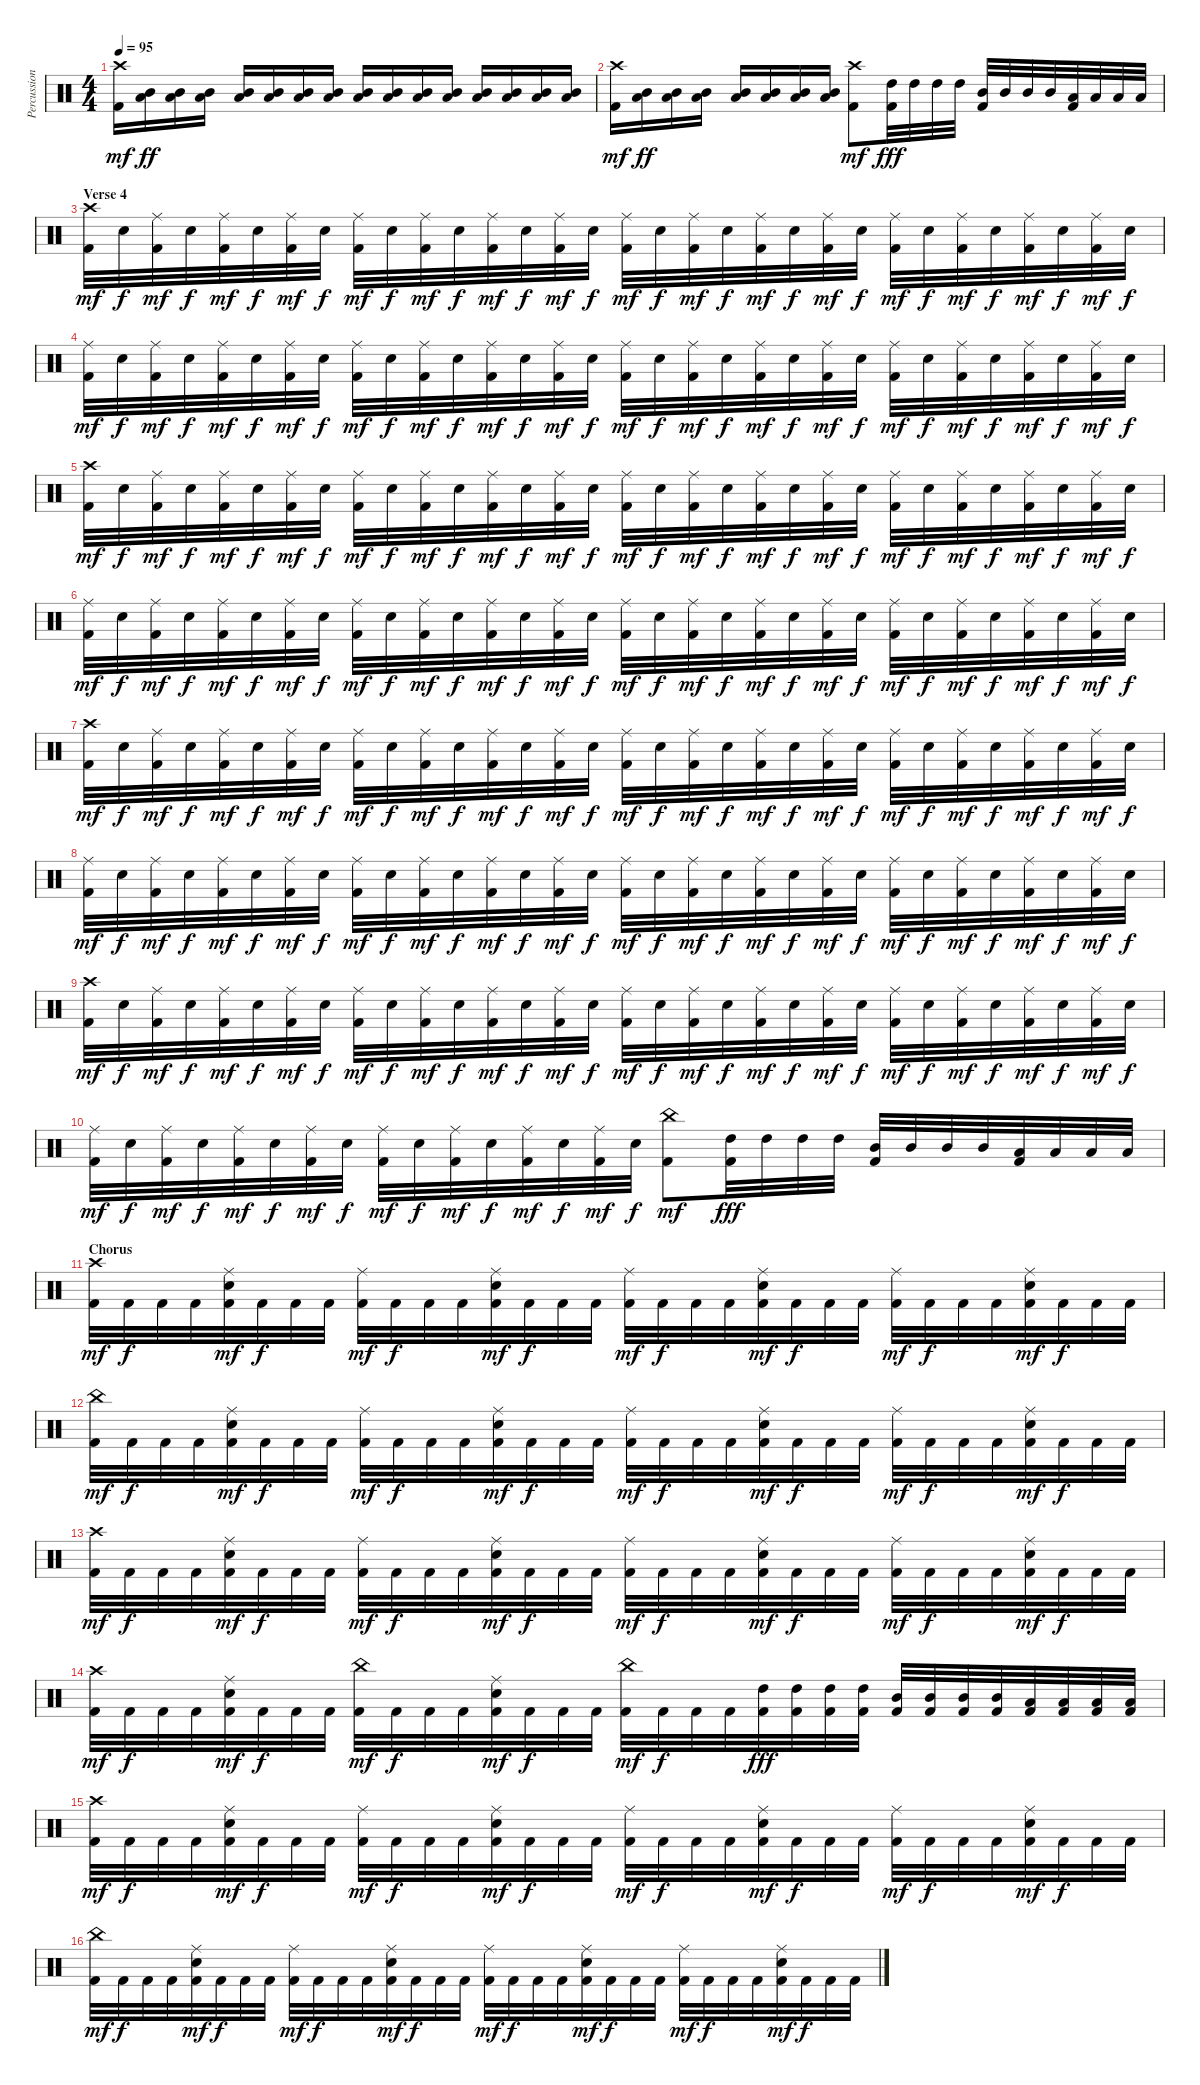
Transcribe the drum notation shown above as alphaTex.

\track ("Percussion" "Percussion") {instrument percussion}
\staff {score}
\articulation defaults
\ts (4 4)
\tempo 95
\clef neutral
\ks c
("Crash high (hit)" "Kick (hit) 2").16{dy mf} ("Mid Tom (hit)" "Low Tom (hit)").16{dy ff} ("Mid Tom (hit)" "Low Tom (hit)").16 ("Mid Tom (hit)" "Low Tom (hit)").16 ("Mid Tom (hit)" "Low Tom (hit)").16 ("Mid Tom (hit)" "Low Tom (hit)").16 ("Mid Tom (hit)" "Low Tom (hit)").16 ("Mid Tom (hit)" "Low Tom (hit)").16 ("Mid Tom (hit)" "Low Tom (hit)").16 ("Mid Tom (hit)" "Low Tom (hit)").16 ("Mid Tom (hit)" "Low Tom (hit)").16 ("Mid Tom (hit)" "Low Tom (hit)").16 ("Mid Tom (hit)" "Low Tom (hit)").16 ("Mid Tom (hit)" "Low Tom (hit)").16 ("Mid Tom (hit)" "Low Tom (hit)").16 ("Mid Tom (hit)" "Low Tom (hit)").16 |
("Crash high (hit)" "Kick (hit) 2").16{dy mf} ("Mid Tom (hit)" "Low Tom (hit)").16{dy ff} ("Mid Tom (hit)" "Low Tom (hit)").16 ("Mid Tom (hit)" "Low Tom (hit)").16 ("Mid Tom (hit)" "Low Tom (hit)").16 ("Mid Tom (hit)" "Low Tom (hit)").16 ("Mid Tom (hit)" "Low Tom (hit)").16 ("Mid Tom (hit)" "Low Tom (hit)").16 ("Crash high (hit)" "Kick (hit) 2").8{dy mf} ("High Tom (hit)" "Kick (hit) 2").32{dy fff} "High Tom (hit)".32 "High Tom (hit)".32 "High Tom (hit)".32 ("Mid Tom (hit)" "Kick (hit) 2").32 "Mid Tom (hit)".32 "Mid Tom (hit)".32 "Mid Tom (hit)".32 ("Low Tom (hit)" "Kick (hit) 2").32 "Low Tom (hit)".32 "Low Tom (hit)".32 "Low Tom (hit)".32 |
\section ("" "Verse 4")
("Crash high (hit)" "Kick (hit) 2").32{dy mf} "Electric Snare (hit)".32{dy f} ("Ride (middle)" "Kick (hit) 2").32{dy mf} "Electric Snare (hit)".32{dy f} ("Ride (middle)" "Kick (hit) 2").32{dy mf} "Electric Snare (hit)".32{dy f} ("Ride (middle)" "Kick (hit) 2").32{dy mf} "Electric Snare (hit)".32{dy f} ("Ride (middle)" "Kick (hit) 2").32{dy mf} "Electric Snare (hit)".32{dy f} ("Ride (middle)" "Kick (hit) 2").32{dy mf} "Electric Snare (hit)".32{dy f} ("Ride (middle)" "Kick (hit) 2").32{dy mf} "Electric Snare (hit)".32{dy f} ("Ride (middle)" "Kick (hit) 2").32{dy mf} "Electric Snare (hit)".32{dy f} ("Ride (middle)" "Kick (hit) 2").32{dy mf} "Electric Snare (hit)".32{dy f} ("Ride (middle)" "Kick (hit) 2").32{dy mf} "Electric Snare (hit)".32{dy f} ("Ride (middle)" "Kick (hit) 2").32{dy mf} "Electric Snare (hit)".32{dy f} ("Ride (middle)" "Kick (hit) 2").32{dy mf} "Electric Snare (hit)".32{dy f} ("Ride (middle)" "Kick (hit) 2").32{dy mf} "Electric Snare (hit)".32{dy f} ("Ride (middle)" "Kick (hit) 2").32{dy mf} "Electric Snare (hit)".32{dy f} ("Ride (middle)" "Kick (hit) 2").32{dy mf} "Electric Snare (hit)".32{dy f} ("Ride (middle)" "Kick (hit) 2").32{dy mf} "Electric Snare (hit)".32{dy f} |
("Ride (middle)" "Kick (hit) 2").32{dy mf} "Electric Snare (hit)".32{dy f} ("Ride (middle)" "Kick (hit) 2").32{dy mf} "Electric Snare (hit)".32{dy f} ("Ride (middle)" "Kick (hit) 2").32{dy mf} "Electric Snare (hit)".32{dy f} ("Ride (middle)" "Kick (hit) 2").32{dy mf} "Electric Snare (hit)".32{dy f} ("Ride (middle)" "Kick (hit) 2").32{dy mf} "Electric Snare (hit)".32{dy f} ("Ride (middle)" "Kick (hit) 2").32{dy mf} "Electric Snare (hit)".32{dy f} ("Ride (middle)" "Kick (hit) 2").32{dy mf} "Electric Snare (hit)".32{dy f} ("Ride (middle)" "Kick (hit) 2").32{dy mf} "Electric Snare (hit)".32{dy f} ("Ride (middle)" "Kick (hit) 2").32{dy mf} "Electric Snare (hit)".32{dy f} ("Ride (middle)" "Kick (hit) 2").32{dy mf} "Electric Snare (hit)".32{dy f} ("Ride (middle)" "Kick (hit) 2").32{dy mf} "Electric Snare (hit)".32{dy f} ("Ride (middle)" "Kick (hit) 2").32{dy mf} "Electric Snare (hit)".32{dy f} ("Ride (middle)" "Kick (hit) 2").32{dy mf} "Electric Snare (hit)".32{dy f} ("Ride (middle)" "Kick (hit) 2").32{dy mf} "Electric Snare (hit)".32{dy f} ("Ride (middle)" "Kick (hit) 2").32{dy mf} "Electric Snare (hit)".32{dy f} ("Ride (middle)" "Kick (hit) 2").32{dy mf} "Electric Snare (hit)".32{dy f} |
("Crash high (hit)" "Kick (hit) 2").32{dy mf} "Electric Snare (hit)".32{dy f} ("Ride (middle)" "Kick (hit) 2").32{dy mf} "Electric Snare (hit)".32{dy f} ("Ride (middle)" "Kick (hit) 2").32{dy mf} "Electric Snare (hit)".32{dy f} ("Ride (middle)" "Kick (hit) 2").32{dy mf} "Electric Snare (hit)".32{dy f} ("Ride (middle)" "Kick (hit) 2").32{dy mf} "Electric Snare (hit)".32{dy f} ("Ride (middle)" "Kick (hit) 2").32{dy mf} "Electric Snare (hit)".32{dy f} ("Ride (middle)" "Kick (hit) 2").32{dy mf} "Electric Snare (hit)".32{dy f} ("Ride (middle)" "Kick (hit) 2").32{dy mf} "Electric Snare (hit)".32{dy f} ("Ride (middle)" "Kick (hit) 2").32{dy mf} "Electric Snare (hit)".32{dy f} ("Ride (middle)" "Kick (hit) 2").32{dy mf} "Electric Snare (hit)".32{dy f} ("Ride (middle)" "Kick (hit) 2").32{dy mf} "Electric Snare (hit)".32{dy f} ("Ride (middle)" "Kick (hit) 2").32{dy mf} "Electric Snare (hit)".32{dy f} ("Ride (middle)" "Kick (hit) 2").32{dy mf} "Electric Snare (hit)".32{dy f} ("Ride (middle)" "Kick (hit) 2").32{dy mf} "Electric Snare (hit)".32{dy f} ("Ride (middle)" "Kick (hit) 2").32{dy mf} "Electric Snare (hit)".32{dy f} ("Ride (middle)" "Kick (hit) 2").32{dy mf} "Electric Snare (hit)".32{dy f} |
("Ride (middle)" "Kick (hit) 2").32{dy mf} "Electric Snare (hit)".32{dy f} ("Ride (middle)" "Kick (hit) 2").32{dy mf} "Electric Snare (hit)".32{dy f} ("Ride (middle)" "Kick (hit) 2").32{dy mf} "Electric Snare (hit)".32{dy f} ("Ride (middle)" "Kick (hit) 2").32{dy mf} "Electric Snare (hit)".32{dy f} ("Ride (middle)" "Kick (hit) 2").32{dy mf} "Electric Snare (hit)".32{dy f} ("Ride (middle)" "Kick (hit) 2").32{dy mf} "Electric Snare (hit)".32{dy f} ("Ride (middle)" "Kick (hit) 2").32{dy mf} "Electric Snare (hit)".32{dy f} ("Ride (middle)" "Kick (hit) 2").32{dy mf} "Electric Snare (hit)".32{dy f} ("Ride (middle)" "Kick (hit) 2").32{dy mf} "Electric Snare (hit)".32{dy f} ("Ride (middle)" "Kick (hit) 2").32{dy mf} "Electric Snare (hit)".32{dy f} ("Ride (middle)" "Kick (hit) 2").32{dy mf} "Electric Snare (hit)".32{dy f} ("Ride (middle)" "Kick (hit) 2").32{dy mf} "Electric Snare (hit)".32{dy f} ("Ride (middle)" "Kick (hit) 2").32{dy mf} "Electric Snare (hit)".32{dy f} ("Ride (middle)" "Kick (hit) 2").32{dy mf} "Electric Snare (hit)".32{dy f} ("Ride (middle)" "Kick (hit) 2").32{dy mf} "Electric Snare (hit)".32{dy f} ("Ride (middle)" "Kick (hit) 2").32{dy mf} "Electric Snare (hit)".32{dy f} |
("Crash high (hit)" "Kick (hit) 2").32{dy mf} "Electric Snare (hit)".32{dy f} ("Ride (middle)" "Kick (hit) 2").32{dy mf} "Electric Snare (hit)".32{dy f} ("Ride (middle)" "Kick (hit) 2").32{dy mf} "Electric Snare (hit)".32{dy f} ("Ride (middle)" "Kick (hit) 2").32{dy mf} "Electric Snare (hit)".32{dy f} ("Ride (middle)" "Kick (hit) 2").32{dy mf} "Electric Snare (hit)".32{dy f} ("Ride (middle)" "Kick (hit) 2").32{dy mf} "Electric Snare (hit)".32{dy f} ("Ride (middle)" "Kick (hit) 2").32{dy mf} "Electric Snare (hit)".32{dy f} ("Ride (middle)" "Kick (hit) 2").32{dy mf} "Electric Snare (hit)".32{dy f} ("Ride (middle)" "Kick (hit) 2").32{dy mf} "Electric Snare (hit)".32{dy f} ("Ride (middle)" "Kick (hit) 2").32{dy mf} "Electric Snare (hit)".32{dy f} ("Ride (middle)" "Kick (hit) 2").32{dy mf} "Electric Snare (hit)".32{dy f} ("Ride (middle)" "Kick (hit) 2").32{dy mf} "Electric Snare (hit)".32{dy f} ("Ride (middle)" "Kick (hit) 2").32{dy mf} "Electric Snare (hit)".32{dy f} ("Ride (middle)" "Kick (hit) 2").32{dy mf} "Electric Snare (hit)".32{dy f} ("Ride (middle)" "Kick (hit) 2").32{dy mf} "Electric Snare (hit)".32{dy f} ("Ride (middle)" "Kick (hit) 2").32{dy mf} "Electric Snare (hit)".32{dy f} |
("Ride (middle)" "Kick (hit) 2").32{dy mf} "Electric Snare (hit)".32{dy f} ("Ride (middle)" "Kick (hit) 2").32{dy mf} "Electric Snare (hit)".32{dy f} ("Ride (middle)" "Kick (hit) 2").32{dy mf} "Electric Snare (hit)".32{dy f} ("Ride (middle)" "Kick (hit) 2").32{dy mf} "Electric Snare (hit)".32{dy f} ("Ride (middle)" "Kick (hit) 2").32{dy mf} "Electric Snare (hit)".32{dy f} ("Ride (middle)" "Kick (hit) 2").32{dy mf} "Electric Snare (hit)".32{dy f} ("Ride (middle)" "Kick (hit) 2").32{dy mf} "Electric Snare (hit)".32{dy f} ("Ride (middle)" "Kick (hit) 2").32{dy mf} "Electric Snare (hit)".32{dy f} ("Ride (middle)" "Kick (hit) 2").32{dy mf} "Electric Snare (hit)".32{dy f} ("Ride (middle)" "Kick (hit) 2").32{dy mf} "Electric Snare (hit)".32{dy f} ("Ride (middle)" "Kick (hit) 2").32{dy mf} "Electric Snare (hit)".32{dy f} ("Ride (middle)" "Kick (hit) 2").32{dy mf} "Electric Snare (hit)".32{dy f} ("Ride (middle)" "Kick (hit) 2").32{dy mf} "Electric Snare (hit)".32{dy f} ("Ride (middle)" "Kick (hit) 2").32{dy mf} "Electric Snare (hit)".32{dy f} ("Ride (middle)" "Kick (hit) 2").32{dy mf} "Electric Snare (hit)".32{dy f} ("Ride (middle)" "Kick (hit) 2").32{dy mf} "Electric Snare (hit)".32{dy f} |
("Crash high (hit)" "Kick (hit) 2").32{dy mf} "Electric Snare (hit)".32{dy f} ("Ride (middle)" "Kick (hit) 2").32{dy mf} "Electric Snare (hit)".32{dy f} ("Ride (middle)" "Kick (hit) 2").32{dy mf} "Electric Snare (hit)".32{dy f} ("Ride (middle)" "Kick (hit) 2").32{dy mf} "Electric Snare (hit)".32{dy f} ("Ride (middle)" "Kick (hit) 2").32{dy mf} "Electric Snare (hit)".32{dy f} ("Ride (middle)" "Kick (hit) 2").32{dy mf} "Electric Snare (hit)".32{dy f} ("Ride (middle)" "Kick (hit) 2").32{dy mf} "Electric Snare (hit)".32{dy f} ("Ride (middle)" "Kick (hit) 2").32{dy mf} "Electric Snare (hit)".32{dy f} ("Ride (middle)" "Kick (hit) 2").32{dy mf} "Electric Snare (hit)".32{dy f} ("Ride (middle)" "Kick (hit) 2").32{dy mf} "Electric Snare (hit)".32{dy f} ("Ride (middle)" "Kick (hit) 2").32{dy mf} "Electric Snare (hit)".32{dy f} ("Ride (middle)" "Kick (hit) 2").32{dy mf} "Electric Snare (hit)".32{dy f} ("Ride (middle)" "Kick (hit) 2").32{dy mf} "Electric Snare (hit)".32{dy f} ("Ride (middle)" "Kick (hit) 2").32{dy mf} "Electric Snare (hit)".32{dy f} ("Ride (middle)" "Kick (hit) 2").32{dy mf} "Electric Snare (hit)".32{dy f} ("Ride (middle)" "Kick (hit) 2").32{dy mf} "Electric Snare (hit)".32{dy f} |
("Ride (middle)" "Kick (hit) 2").32{dy mf} "Electric Snare (hit)".32{dy f} ("Ride (middle)" "Kick (hit) 2").32{dy mf} "Electric Snare (hit)".32{dy f} ("Ride (middle)" "Kick (hit) 2").32{dy mf} "Electric Snare (hit)".32{dy f} ("Ride (middle)" "Kick (hit) 2").32{dy mf} "Electric Snare (hit)".32{dy f} ("Ride (middle)" "Kick (hit) 2").32{dy mf} "Electric Snare (hit)".32{dy f} ("Ride (middle)" "Kick (hit) 2").32{dy mf} "Electric Snare (hit)".32{dy f} ("Ride (middle)" "Kick (hit) 2").32{dy mf} "Electric Snare (hit)".32{dy f} ("Ride (middle)" "Kick (hit) 2").32{dy mf} "Electric Snare (hit)".32{dy f} ("China (hit)" "Kick (hit) 2").8{dy mf} ("High Tom (hit)" "Kick (hit) 2").32{dy fff} "High Tom (hit)".32 "High Tom (hit)".32 "High Tom (hit)".32 ("Mid Tom (hit)" "Kick (hit) 2").32 "Mid Tom (hit)".32 "Mid Tom (hit)".32 "Mid Tom (hit)".32 ("Low Tom (hit)" "Kick (hit) 2").32 "Low Tom (hit)".32 "Low Tom (hit)".32 "Low Tom (hit)".32 |
\section ("" "Chorus")
("Crash high (hit)" "Kick (hit) 2").32{dy mf} "Kick (hit) 2".32{dy f} "Kick (hit) 2".32 "Kick (hit) 2".32 ("Ride (middle)" "Electric Snare (hit)" "Kick (hit) 2").32{dy mf} "Kick (hit) 2".32{dy f} "Kick (hit) 2".32 "Kick (hit) 2".32 ("Ride (middle)" "Kick (hit) 2").32{dy mf} "Kick (hit) 2".32{dy f} "Kick (hit) 2".32 "Kick (hit) 2".32 ("Ride (middle)" "Electric Snare (hit)" "Kick (hit) 2").32{dy mf} "Kick (hit) 2".32{dy f} "Kick (hit) 2".32 "Kick (hit) 2".32 ("Ride (middle)" "Kick (hit) 2").32{dy mf} "Kick (hit) 2".32{dy f} "Kick (hit) 2".32 "Kick (hit) 2".32 ("Ride (middle)" "Electric Snare (hit)" "Kick (hit) 2").32{dy mf} "Kick (hit) 2".32{dy f} "Kick (hit) 2".32 "Kick (hit) 2".32 ("Ride (middle)" "Kick (hit) 2").32{dy mf} "Kick (hit) 2".32{dy f} "Kick (hit) 2".32 "Kick (hit) 2".32 ("Ride (middle)" "Electric Snare (hit)" "Kick (hit) 2").32{dy mf} "Kick (hit) 2".32{dy f} "Kick (hit) 2".32 "Kick (hit) 2".32 |
("China (hit)" "Kick (hit) 2").32{dy mf} "Kick (hit) 2".32{dy f} "Kick (hit) 2".32 "Kick (hit) 2".32 ("Ride (middle)" "Electric Snare (hit)" "Kick (hit) 2").32{dy mf} "Kick (hit) 2".32{dy f} "Kick (hit) 2".32 "Kick (hit) 2".32 ("Ride (middle)" "Kick (hit) 2").32{dy mf} "Kick (hit) 2".32{dy f} "Kick (hit) 2".32 "Kick (hit) 2".32 ("Ride (middle)" "Electric Snare (hit)" "Kick (hit) 2").32{dy mf} "Kick (hit) 2".32{dy f} "Kick (hit) 2".32 "Kick (hit) 2".32 ("Ride (middle)" "Kick (hit) 2").32{dy mf} "Kick (hit) 2".32{dy f} "Kick (hit) 2".32 "Kick (hit) 2".32 ("Ride (middle)" "Electric Snare (hit)" "Kick (hit) 2").32{dy mf} "Kick (hit) 2".32{dy f} "Kick (hit) 2".32 "Kick (hit) 2".32 ("Ride (middle)" "Kick (hit) 2").32{dy mf} "Kick (hit) 2".32{dy f} "Kick (hit) 2".32 "Kick (hit) 2".32 ("Ride (middle)" "Electric Snare (hit)" "Kick (hit) 2").32{dy mf} "Kick (hit) 2".32{dy f} "Kick (hit) 2".32 "Kick (hit) 2".32 |
("Crash high (hit)" "Kick (hit) 2").32{dy mf} "Kick (hit) 2".32{dy f} "Kick (hit) 2".32 "Kick (hit) 2".32 ("Ride (middle)" "Electric Snare (hit)" "Kick (hit) 2").32{dy mf} "Kick (hit) 2".32{dy f} "Kick (hit) 2".32 "Kick (hit) 2".32 ("Ride (middle)" "Kick (hit) 2").32{dy mf} "Kick (hit) 2".32{dy f} "Kick (hit) 2".32 "Kick (hit) 2".32 ("Ride (middle)" "Electric Snare (hit)" "Kick (hit) 2").32{dy mf} "Kick (hit) 2".32{dy f} "Kick (hit) 2".32 "Kick (hit) 2".32 ("Ride (middle)" "Kick (hit) 2").32{dy mf} "Kick (hit) 2".32{dy f} "Kick (hit) 2".32 "Kick (hit) 2".32 ("Ride (middle)" "Electric Snare (hit)" "Kick (hit) 2").32{dy mf} "Kick (hit) 2".32{dy f} "Kick (hit) 2".32 "Kick (hit) 2".32 ("Ride (middle)" "Kick (hit) 2").32{dy mf} "Kick (hit) 2".32{dy f} "Kick (hit) 2".32 "Kick (hit) 2".32 ("Ride (middle)" "Electric Snare (hit)" "Kick (hit) 2").32{dy mf} "Kick (hit) 2".32{dy f} "Kick (hit) 2".32 "Kick (hit) 2".32 |
("Crash high (hit)" "Kick (hit) 2").32{dy mf} "Kick (hit) 2".32{dy f} "Kick (hit) 2".32 "Kick (hit) 2".32 ("Ride (middle)" "Electric Snare (hit)" "Kick (hit) 2").32{dy mf} "Kick (hit) 2".32{dy f} "Kick (hit) 2".32 "Kick (hit) 2".32 ("China (hit)" "Kick (hit) 2").32{dy mf} "Kick (hit) 2".32{dy f} "Kick (hit) 2".32 "Kick (hit) 2".32 ("Ride (middle)" "Electric Snare (hit)" "Kick (hit) 2").32{dy mf} "Kick (hit) 2".32{dy f} "Kick (hit) 2".32 "Kick (hit) 2".32 ("China (hit)" "Kick (hit) 2").32{dy mf} "Kick (hit) 2".32{dy f} "Kick (hit) 2".32 "Kick (hit) 2".32 ("High Tom (hit)" "Kick (hit) 2").32{dy fff} ("High Tom (hit)" "Kick (hit) 2").32 ("High Tom (hit)" "Kick (hit) 2").32 ("High Tom (hit)" "Kick (hit) 2").32 ("Mid Tom (hit)" "Kick (hit) 2").32 ("Mid Tom (hit)" "Kick (hit) 2").32 ("Mid Tom (hit)" "Kick (hit) 2").32 ("Mid Tom (hit)" "Kick (hit) 2").32 ("Low Tom (hit)" "Kick (hit) 2").32 ("Low Tom (hit)" "Kick (hit) 2").32 ("Low Tom (hit)" "Kick (hit) 2").32 ("Low Tom (hit)" "Kick (hit) 2").32 |
("Crash high (hit)" "Kick (hit) 2").32{dy mf} "Kick (hit) 2".32{dy f} "Kick (hit) 2".32 "Kick (hit) 2".32 ("Ride (middle)" "Electric Snare (hit)" "Kick (hit) 2").32{dy mf} "Kick (hit) 2".32{dy f} "Kick (hit) 2".32 "Kick (hit) 2".32 ("Ride (middle)" "Kick (hit) 2").32{dy mf} "Kick (hit) 2".32{dy f} "Kick (hit) 2".32 "Kick (hit) 2".32 ("Ride (middle)" "Electric Snare (hit)" "Kick (hit) 2").32{dy mf} "Kick (hit) 2".32{dy f} "Kick (hit) 2".32 "Kick (hit) 2".32 ("Ride (middle)" "Kick (hit) 2").32{dy mf} "Kick (hit) 2".32{dy f} "Kick (hit) 2".32 "Kick (hit) 2".32 ("Ride (middle)" "Electric Snare (hit)" "Kick (hit) 2").32{dy mf} "Kick (hit) 2".32{dy f} "Kick (hit) 2".32 "Kick (hit) 2".32 ("Ride (middle)" "Kick (hit) 2").32{dy mf} "Kick (hit) 2".32{dy f} "Kick (hit) 2".32 "Kick (hit) 2".32 ("Ride (middle)" "Electric Snare (hit)" "Kick (hit) 2").32{dy mf} "Kick (hit) 2".32{dy f} "Kick (hit) 2".32 "Kick (hit) 2".32 |
("China (hit)" "Kick (hit) 2").32{dy mf} "Kick (hit) 2".32{dy f} "Kick (hit) 2".32 "Kick (hit) 2".32 ("Ride (middle)" "Electric Snare (hit)" "Kick (hit) 2").32{dy mf} "Kick (hit) 2".32{dy f} "Kick (hit) 2".32 "Kick (hit) 2".32 ("Ride (middle)" "Kick (hit) 2").32{dy mf} "Kick (hit) 2".32{dy f} "Kick (hit) 2".32 "Kick (hit) 2".32 ("Ride (middle)" "Electric Snare (hit)" "Kick (hit) 2").32{dy mf} "Kick (hit) 2".32{dy f} "Kick (hit) 2".32 "Kick (hit) 2".32 ("Ride (middle)" "Kick (hit) 2").32{dy mf} "Kick (hit) 2".32{dy f} "Kick (hit) 2".32 "Kick (hit) 2".32 ("Ride (middle)" "Electric Snare (hit)" "Kick (hit) 2").32{dy mf} "Kick (hit) 2".32{dy f} "Kick (hit) 2".32 "Kick (hit) 2".32 ("Ride (middle)" "Kick (hit) 2").32{dy mf} "Kick (hit) 2".32{dy f} "Kick (hit) 2".32 "Kick (hit) 2".32 ("Ride (middle)" "Electric Snare (hit)" "Kick (hit) 2").32{dy mf} "Kick (hit) 2".32{dy f} "Kick (hit) 2".32 "Kick (hit) 2".32
